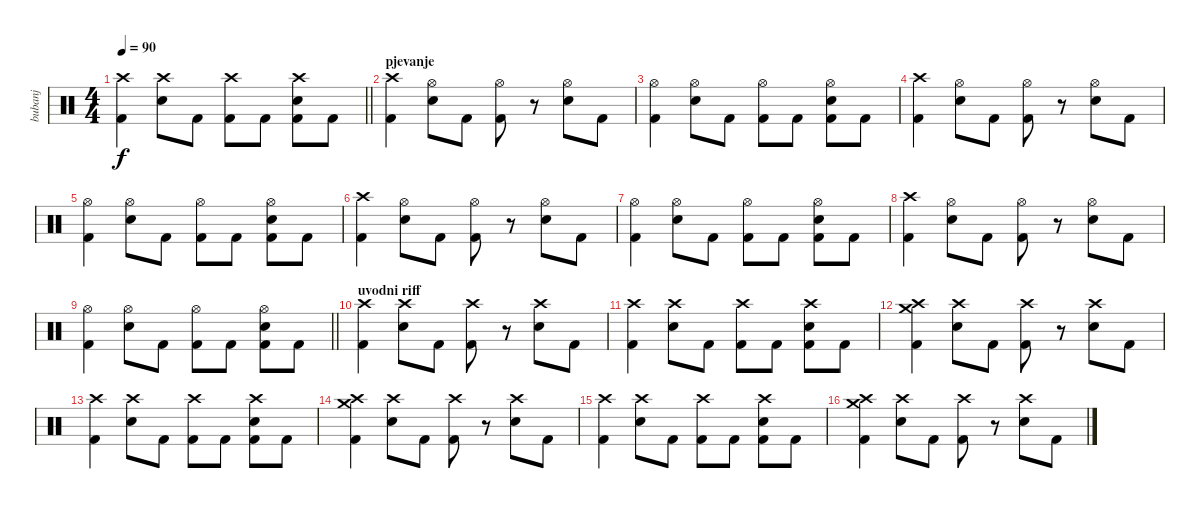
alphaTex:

\track ("bubanj" "bubanj") {instrument percussion}
\staff {score}
\articulation defaults
\ts (4 4)
\tempo 90
\clef neutral
\barLineRight lightlight
\ks c
("Crash high (hit)" "Kick (hit) 2").4{dy f} ("Crash high (hit)" "Electric Snare (hit)").8 "Kick (hit) 2".8 ("Crash high (hit)" "Kick (hit) 2").8 "Kick (hit) 2".8 ("Crash high (hit)" "Electric Snare (hit)" "Kick (hit) 2").8 "Kick (hit) 2".8 |
\section ("" "pjevanje")
("Crash high (hit)" "Kick (hit) 2").4 ("Hi-Hat (open)" "Electric Snare (hit)").8 "Kick (hit) 2".8 ("Hi-Hat (open)" "Kick (hit) 2").8 r.8 ("Hi-Hat (open)" "Electric Snare (hit)").8 "Kick (hit) 2".8 |
("Hi-Hat (open)" "Kick (hit) 2").4 ("Hi-Hat (open)" "Electric Snare (hit)").8 "Kick (hit) 2".8 ("Hi-Hat (open)" "Kick (hit) 2").8 "Kick (hit) 2".8 ("Hi-Hat (open)" "Electric Snare (hit)" "Kick (hit) 2").8 "Kick (hit) 2".8 |
("Crash high (hit)" "Kick (hit) 2").4 ("Hi-Hat (open)" "Electric Snare (hit)").8 "Kick (hit) 2".8 ("Hi-Hat (open)" "Kick (hit) 2").8 r.8 ("Hi-Hat (open)" "Electric Snare (hit)").8 "Kick (hit) 2".8 |
("Hi-Hat (open)" "Kick (hit) 2").4 ("Hi-Hat (open)" "Electric Snare (hit)").8 "Kick (hit) 2".8 ("Hi-Hat (open)" "Kick (hit) 2").8 "Kick (hit) 2".8 ("Hi-Hat (open)" "Electric Snare (hit)" "Kick (hit) 2").8 "Kick (hit) 2".8 |
("Crash high (hit)" "Kick (hit) 2").4 ("Hi-Hat (open)" "Electric Snare (hit)").8 "Kick (hit) 2".8 ("Hi-Hat (open)" "Kick (hit) 2").8 r.8 ("Hi-Hat (open)" "Electric Snare (hit)").8 "Kick (hit) 2".8 |
("Hi-Hat (open)" "Kick (hit) 2").4 ("Hi-Hat (open)" "Electric Snare (hit)").8 "Kick (hit) 2".8 ("Hi-Hat (open)" "Kick (hit) 2").8 "Kick (hit) 2".8 ("Hi-Hat (open)" "Electric Snare (hit)" "Kick (hit) 2").8 "Kick (hit) 2".8 |
("Crash high (hit)" "Kick (hit) 2").4 ("Hi-Hat (open)" "Electric Snare (hit)").8 "Kick (hit) 2".8 ("Hi-Hat (open)" "Kick (hit) 2").8 r.8 ("Hi-Hat (open)" "Electric Snare (hit)").8 "Kick (hit) 2".8 |
\barLineRight lightlight
("Hi-Hat (open)" "Kick (hit) 2").4 ("Hi-Hat (open)" "Electric Snare (hit)").8 "Kick (hit) 2".8 ("Hi-Hat (open)" "Kick (hit) 2").8 "Kick (hit) 2".8 ("Hi-Hat (open)" "Electric Snare (hit)" "Kick (hit) 2").8 "Kick (hit) 2".8 |
\section ("" "uvodni riff")
("Crash high (hit)" "Kick (hit) 2").4 ("Crash high (hit)" "Electric Snare (hit)").8 "Kick (hit) 2".8 ("Crash high (hit)" "Kick (hit) 2").8 r.8 ("Crash high (hit)" "Electric Snare (hit)").8 "Kick (hit) 2".8 |
("Crash high (hit)" "Kick (hit) 2").4 ("Crash high (hit)" "Electric Snare (hit)").8 "Kick (hit) 2".8 ("Crash high (hit)" "Kick (hit) 2").8 "Kick (hit) 2".8 ("Crash high (hit)" "Electric Snare (hit)" "Kick (hit) 2").8 "Kick (hit) 2".8 |
("Crash medium (hit)" "Crash high (hit)" "Kick (hit) 2").4 ("Crash high (hit)" "Electric Snare (hit)").8 "Kick (hit) 2".8 ("Crash high (hit)" "Kick (hit) 2").8 r.8 ("Crash high (hit)" "Electric Snare (hit)").8 "Kick (hit) 2".8 |
("Crash high (hit)" "Kick (hit) 2").4 ("Crash high (hit)" "Electric Snare (hit)").8 "Kick (hit) 2".8 ("Crash high (hit)" "Kick (hit) 2").8 "Kick (hit) 2".8 ("Crash high (hit)" "Electric Snare (hit)" "Kick (hit) 2").8 "Kick (hit) 2".8 |
("Crash medium (hit)" "Crash high (hit)" "Kick (hit) 2").4 ("Crash high (hit)" "Electric Snare (hit)").8 "Kick (hit) 2".8 ("Crash high (hit)" "Kick (hit) 2").8 r.8 ("Crash high (hit)" "Electric Snare (hit)").8 "Kick (hit) 2".8 |
("Crash high (hit)" "Kick (hit) 2").4 ("Crash high (hit)" "Electric Snare (hit)").8 "Kick (hit) 2".8 ("Crash high (hit)" "Kick (hit) 2").8 "Kick (hit) 2".8 ("Crash high (hit)" "Electric Snare (hit)" "Kick (hit) 2").8 "Kick (hit) 2".8 |
("Crash medium (hit)" "Crash high (hit)" "Kick (hit) 2").4 ("Crash high (hit)" "Electric Snare (hit)").8 "Kick (hit) 2".8 ("Crash high (hit)" "Kick (hit) 2").8 r.8 ("Crash high (hit)" "Electric Snare (hit)").8 "Kick (hit) 2".8
